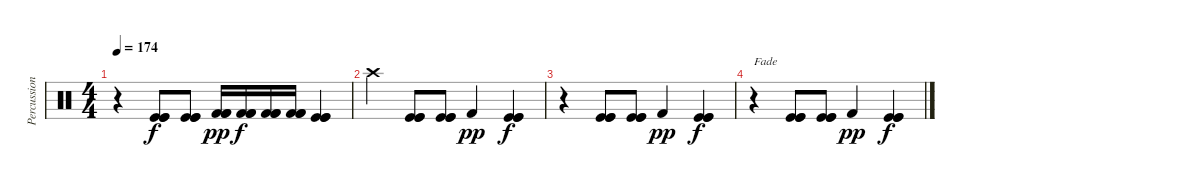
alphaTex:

\track ("Percussions" "Percussion") {instrument percussion}
\staff {score}
\articulation defaults
\ts (4 4)
\tempo 174
\clef neutral
\ks c
r.4{dy f} ("Kick (hit)" "Kick (hit)" "Kick (hit)").8 ("Kick (hit)" "Kick (hit)" "Kick (hit)").8 ("Kick (hit) 2" "Kick (hit) 2" "Kick (hit) 2").16{dy pp} ("Kick (hit) 2" "Kick (hit) 2" "Kick (hit) 2").16{dy f} ("Kick (hit) 2" "Kick (hit) 2" "Kick (hit) 2").16 ("Kick (hit) 2" "Kick (hit) 2" "Kick (hit) 2").16 ("Kick (hit)" "Kick (hit)" "Kick (hit)").4 |
"Crash high (hit)".4{volume 0} ("Kick (hit)" "Kick (hit)" "Kick (hit)").8 ("Kick (hit)" "Kick (hit)" "Kick (hit)").8 "Kick (hit) 2".4{dy pp} ("Kick (hit)" "Kick (hit)" "Kick (hit)").4{dy f} |
r.4 ("Kick (hit)" "Kick (hit)" "Kick (hit)").8 ("Kick (hit)" "Kick (hit)" "Kick (hit)").8 "Kick (hit) 2".4{dy pp} ("Kick (hit)" "Kick (hit)" "Kick (hit)").4{dy f} |
r.4{txt "Fade"} ("Kick (hit)" "Kick (hit)" "Kick (hit)").8 ("Kick (hit)" "Kick (hit)" "Kick (hit)").8 "Kick (hit) 2".4{dy pp} ("Kick (hit)" "Kick (hit)" "Kick (hit)").4{dy f}
